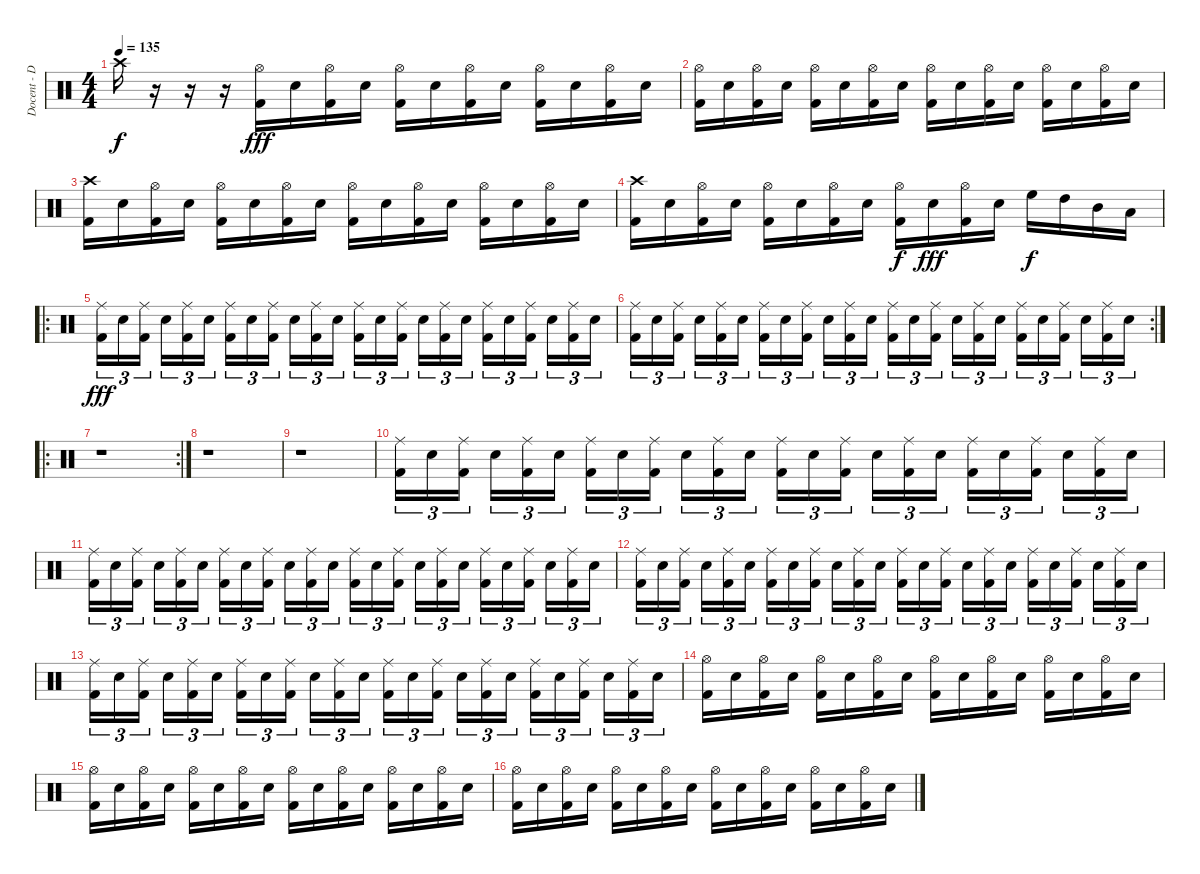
\track ("Docent - Drums" "Docent - D") {instrument percussion}
\staff {score}
\articulation defaults
\ts (4 4)
\tempo 135
\clef neutral
\ks c "Crash high (hit)".16{dy f}
r.16 r.16 r.16 ("Hi-Hat (open)" "Kick (hit) 2").16{dy fff} "Electric Snare (hit)".16 ("Hi-Hat (open)" "Kick (hit) 2").16 "Electric Snare (hit)".16 ("Hi-Hat (open)" "Kick (hit) 2").16 "Electric Snare (hit)".16 ("Hi-Hat (open)" "Kick (hit) 2").16 "Electric Snare (hit)".16 ("Hi-Hat (open)" "Kick (hit) 2").16 "Electric Snare (hit)".16 ("Hi-Hat (open)" "Kick (hit) 2").16 "Electric Snare (hit)".16 |
("Hi-Hat (open)" "Kick (hit) 2").16 "Electric Snare (hit)".16 ("Hi-Hat (open)" "Kick (hit) 2").16 "Electric Snare (hit)".16 ("Hi-Hat (open)" "Kick (hit) 2").16 "Electric Snare (hit)".16 ("Hi-Hat (open)" "Kick (hit) 2").16 "Electric Snare (hit)".16 ("Hi-Hat (open)" "Kick (hit) 2").16 "Electric Snare (hit)".16 ("Hi-Hat (open)" "Kick (hit) 2").16 "Electric Snare (hit)".16 ("Hi-Hat (open)" "Kick (hit) 2").16 "Electric Snare (hit)".16 ("Hi-Hat (open)" "Kick (hit) 2").16 "Electric Snare (hit)".16 |
("Crash high (hit)" "Kick (hit) 2").16 "Electric Snare (hit)".16 ("Hi-Hat (open)" "Kick (hit) 2").16 "Electric Snare (hit)".16 ("Hi-Hat (open)" "Kick (hit) 2").16 "Electric Snare (hit)".16 ("Hi-Hat (open)" "Kick (hit) 2").16 "Electric Snare (hit)".16 ("Hi-Hat (open)" "Kick (hit) 2").16 "Electric Snare (hit)".16 ("Hi-Hat (open)" "Kick (hit) 2").16 "Electric Snare (hit)".16 ("Hi-Hat (open)" "Kick (hit) 2").16 "Electric Snare (hit)".16 ("Hi-Hat (open)" "Kick (hit) 2").16 "Electric Snare (hit)".16 |
("Crash high (hit)" "Kick (hit) 2").16 "Electric Snare (hit)".16 ("Hi-Hat (open)" "Kick (hit) 2").16 "Electric Snare (hit)".16 ("Hi-Hat (open)" "Kick (hit) 2").16 "Electric Snare (hit)".16 ("Hi-Hat (open)" "Kick (hit) 2").16 "Electric Snare (hit)".16 ("Hi-Hat (open)" "Kick (hit) 2").16{dy f} "Electric Snare (hit)".16{dy fff} ("Hi-Hat (open)" "Kick (hit) 2").16 "Electric Snare (hit)".16 "High Floor Tom (hit)".16{dy f} "High Tom (hit)".16 "Mid Tom (hit)".16 "Low Tom (hit)".16 |
\ro
("Ride (middle)" "Kick (hit) 2").16{tu (3 2) dy fff} "Electric Snare (hit)".16{tu (3 2)} ("Ride (middle)" "Kick (hit) 2").16{tu (3 2)} "Electric Snare (hit)".16{tu (3 2)} ("Ride (middle)" "Kick (hit) 2").16{tu (3 2)} "Electric Snare (hit)".16{tu (3 2)} ("Ride (middle)" "Kick (hit) 2").16{tu (3 2)} "Electric Snare (hit)".16{tu (3 2)} ("Ride (middle)" "Kick (hit) 2").16{tu (3 2)} "Electric Snare (hit)".16{tu (3 2)} ("Ride (middle)" "Kick (hit) 2").16{tu (3 2)} "Electric Snare (hit)".16{tu (3 2)} ("Ride (middle)" "Kick (hit) 2").16{tu (3 2)} "Electric Snare (hit)".16{tu (3 2)} ("Ride (middle)" "Kick (hit) 2").16{tu (3 2)} "Electric Snare (hit)".16{tu (3 2)} ("Ride (middle)" "Kick (hit) 2").16{tu (3 2)} "Electric Snare (hit)".16{tu (3 2)} ("Ride (middle)" "Kick (hit) 2").16{tu (3 2)} "Electric Snare (hit)".16{tu (3 2)} ("Ride (middle)" "Kick (hit) 2").16{tu (3 2)} "Electric Snare (hit)".16{tu (3 2)} ("Ride (middle)" "Kick (hit) 2").16{tu (3 2)} "Electric Snare (hit)".16{tu (3 2)} |
\rc 2
("Ride (middle)" "Kick (hit) 2").16{tu (3 2)} "Electric Snare (hit)".16{tu (3 2)} ("Ride (middle)" "Kick (hit) 2").16{tu (3 2)} "Electric Snare (hit)".16{tu (3 2)} ("Ride (middle)" "Kick (hit) 2").16{tu (3 2)} "Electric Snare (hit)".16{tu (3 2)} ("Ride (middle)" "Kick (hit) 2").16{tu (3 2)} "Electric Snare (hit)".16{tu (3 2)} ("Ride (middle)" "Kick (hit) 2").16{tu (3 2)} "Electric Snare (hit)".16{tu (3 2)} ("Ride (middle)" "Kick (hit) 2").16{tu (3 2)} "Electric Snare (hit)".16{tu (3 2)} ("Ride (middle)" "Kick (hit) 2").16{tu (3 2)} "Electric Snare (hit)".16{tu (3 2)} ("Ride (middle)" "Kick (hit) 2").16{tu (3 2)} "Electric Snare (hit)".16{tu (3 2)} ("Ride (middle)" "Kick (hit) 2").16{tu (3 2)} "Electric Snare (hit)".16{tu (3 2)} ("Ride (middle)" "Kick (hit) 2").16{tu (3 2)} "Electric Snare (hit)".16{tu (3 2)} ("Ride (middle)" "Kick (hit) 2").16{tu (3 2)} "Electric Snare (hit)".16{tu (3 2)} ("Ride (middle)" "Kick (hit) 2").16{tu (3 2)} "Electric Snare (hit)".16{tu (3 2)} |
\ro
\rc 2
r.1 |
r.1 |
r.1 |
("Ride (middle)" "Kick (hit) 2").16{tu (3 2)} "Electric Snare (hit)".16{tu (3 2)} ("Ride (middle)" "Kick (hit) 2").16{tu (3 2)} "Electric Snare (hit)".16{tu (3 2)} ("Ride (middle)" "Kick (hit) 2").16{tu (3 2)} "Electric Snare (hit)".16{tu (3 2)} ("Ride (middle)" "Kick (hit) 2").16{tu (3 2)} "Electric Snare (hit)".16{tu (3 2)} ("Ride (middle)" "Kick (hit) 2").16{tu (3 2)} "Electric Snare (hit)".16{tu (3 2)} ("Ride (middle)" "Kick (hit) 2").16{tu (3 2)} "Electric Snare (hit)".16{tu (3 2)} ("Ride (middle)" "Kick (hit) 2").16{tu (3 2)} "Electric Snare (hit)".16{tu (3 2)} ("Ride (middle)" "Kick (hit) 2").16{tu (3 2)} "Electric Snare (hit)".16{tu (3 2)} ("Ride (middle)" "Kick (hit) 2").16{tu (3 2)} "Electric Snare (hit)".16{tu (3 2)} ("Ride (middle)" "Kick (hit) 2").16{tu (3 2)} "Electric Snare (hit)".16{tu (3 2)} ("Ride (middle)" "Kick (hit) 2").16{tu (3 2)} "Electric Snare (hit)".16{tu (3 2)} ("Ride (middle)" "Kick (hit) 2").16{tu (3 2)} "Electric Snare (hit)".16{tu (3 2)} |
("Ride (middle)" "Kick (hit) 2").16{tu (3 2)} "Electric Snare (hit)".16{tu (3 2)} ("Ride (middle)" "Kick (hit) 2").16{tu (3 2)} "Electric Snare (hit)".16{tu (3 2)} ("Ride (middle)" "Kick (hit) 2").16{tu (3 2)} "Electric Snare (hit)".16{tu (3 2)} ("Ride (middle)" "Kick (hit) 2").16{tu (3 2)} "Electric Snare (hit)".16{tu (3 2)} ("Ride (middle)" "Kick (hit) 2").16{tu (3 2)} "Electric Snare (hit)".16{tu (3 2)} ("Ride (middle)" "Kick (hit) 2").16{tu (3 2)} "Electric Snare (hit)".16{tu (3 2)} ("Ride (middle)" "Kick (hit) 2").16{tu (3 2)} "Electric Snare (hit)".16{tu (3 2)} ("Ride (middle)" "Kick (hit) 2").16{tu (3 2)} "Electric Snare (hit)".16{tu (3 2)} ("Ride (middle)" "Kick (hit) 2").16{tu (3 2)} "Electric Snare (hit)".16{tu (3 2)} ("Ride (middle)" "Kick (hit) 2").16{tu (3 2)} "Electric Snare (hit)".16{tu (3 2)} ("Ride (middle)" "Kick (hit) 2").16{tu (3 2)} "Electric Snare (hit)".16{tu (3 2)} ("Ride (middle)" "Kick (hit) 2").16{tu (3 2)} "Electric Snare (hit)".16{tu (3 2)} |
("Ride (middle)" "Kick (hit) 2").16{tu (3 2)} "Electric Snare (hit)".16{tu (3 2)} ("Ride (middle)" "Kick (hit) 2").16{tu (3 2)} "Electric Snare (hit)".16{tu (3 2)} ("Ride (middle)" "Kick (hit) 2").16{tu (3 2)} "Electric Snare (hit)".16{tu (3 2)} ("Ride (middle)" "Kick (hit) 2").16{tu (3 2)} "Electric Snare (hit)".16{tu (3 2)} ("Ride (middle)" "Kick (hit) 2").16{tu (3 2)} "Electric Snare (hit)".16{tu (3 2)} ("Ride (middle)" "Kick (hit) 2").16{tu (3 2)} "Electric Snare (hit)".16{tu (3 2)} ("Ride (middle)" "Kick (hit) 2").16{tu (3 2)} "Electric Snare (hit)".16{tu (3 2)} ("Ride (middle)" "Kick (hit) 2").16{tu (3 2)} "Electric Snare (hit)".16{tu (3 2)} ("Ride (middle)" "Kick (hit) 2").16{tu (3 2)} "Electric Snare (hit)".16{tu (3 2)} ("Ride (middle)" "Kick (hit) 2").16{tu (3 2)} "Electric Snare (hit)".16{tu (3 2)} ("Ride (middle)" "Kick (hit) 2").16{tu (3 2)} "Electric Snare (hit)".16{tu (3 2)} ("Ride (middle)" "Kick (hit) 2").16{tu (3 2)} "Electric Snare (hit)".16{tu (3 2)} |
("Ride (middle)" "Kick (hit) 2").16{tu (3 2)} "Electric Snare (hit)".16{tu (3 2)} ("Ride (middle)" "Kick (hit) 2").16{tu (3 2)} "Electric Snare (hit)".16{tu (3 2)} ("Ride (middle)" "Kick (hit) 2").16{tu (3 2)} "Electric Snare (hit)".16{tu (3 2)} ("Ride (middle)" "Kick (hit) 2").16{tu (3 2)} "Electric Snare (hit)".16{tu (3 2)} ("Ride (middle)" "Kick (hit) 2").16{tu (3 2)} "Electric Snare (hit)".16{tu (3 2)} ("Ride (middle)" "Kick (hit) 2").16{tu (3 2)} "Electric Snare (hit)".16{tu (3 2)} ("Ride (middle)" "Kick (hit) 2").16{tu (3 2)} "Electric Snare (hit)".16{tu (3 2)} ("Ride (middle)" "Kick (hit) 2").16{tu (3 2)} "Electric Snare (hit)".16{tu (3 2)} ("Ride (middle)" "Kick (hit) 2").16{tu (3 2)} "Electric Snare (hit)".16{tu (3 2)} ("Ride (middle)" "Kick (hit) 2").16{tu (3 2)} "Electric Snare (hit)".16{tu (3 2)} ("Ride (middle)" "Kick (hit) 2").16{tu (3 2)} "Electric Snare (hit)".16{tu (3 2)} ("Ride (middle)" "Kick (hit) 2").16{tu (3 2)} "Electric Snare (hit)".16{tu (3 2)} |
("Hi-Hat (open)" "Kick (hit) 2").16 "Electric Snare (hit)".16 ("Hi-Hat (open)" "Kick (hit) 2").16 "Electric Snare (hit)".16 ("Hi-Hat (open)" "Kick (hit) 2").16 "Electric Snare (hit)".16 ("Hi-Hat (open)" "Kick (hit) 2").16 "Electric Snare (hit)".16 ("Hi-Hat (open)" "Kick (hit) 2").16 "Electric Snare (hit)".16 ("Hi-Hat (open)" "Kick (hit) 2").16 "Electric Snare (hit)".16 ("Hi-Hat (open)" "Kick (hit) 2").16 "Electric Snare (hit)".16 ("Hi-Hat (open)" "Kick (hit) 2").16 "Electric Snare (hit)".16 |
("Hi-Hat (open)" "Kick (hit) 2").16 "Electric Snare (hit)".16 ("Hi-Hat (open)" "Kick (hit) 2").16 "Electric Snare (hit)".16 ("Hi-Hat (open)" "Kick (hit) 2").16 "Electric Snare (hit)".16 ("Hi-Hat (open)" "Kick (hit) 2").16 "Electric Snare (hit)".16 ("Hi-Hat (open)" "Kick (hit) 2").16 "Electric Snare (hit)".16 ("Hi-Hat (open)" "Kick (hit) 2").16 "Electric Snare (hit)".16 ("Hi-Hat (open)" "Kick (hit) 2").16 "Electric Snare (hit)".16 ("Hi-Hat (open)" "Kick (hit) 2").16 "Electric Snare (hit)".16 |
("Hi-Hat (open)" "Kick (hit) 2").16 "Electric Snare (hit)".16 ("Hi-Hat (open)" "Kick (hit) 2").16 "Electric Snare (hit)".16 ("Hi-Hat (open)" "Kick (hit) 2").16 "Electric Snare (hit)".16 ("Hi-Hat (open)" "Kick (hit) 2").16 "Electric Snare (hit)".16 ("Hi-Hat (open)" "Kick (hit) 2").16 "Electric Snare (hit)".16 ("Hi-Hat (open)" "Kick (hit) 2").16 "Electric Snare (hit)".16 ("Hi-Hat (open)" "Kick (hit) 2").16 "Electric Snare (hit)".16 ("Hi-Hat (open)" "Kick (hit) 2").16 "Electric Snare (hit)".16
